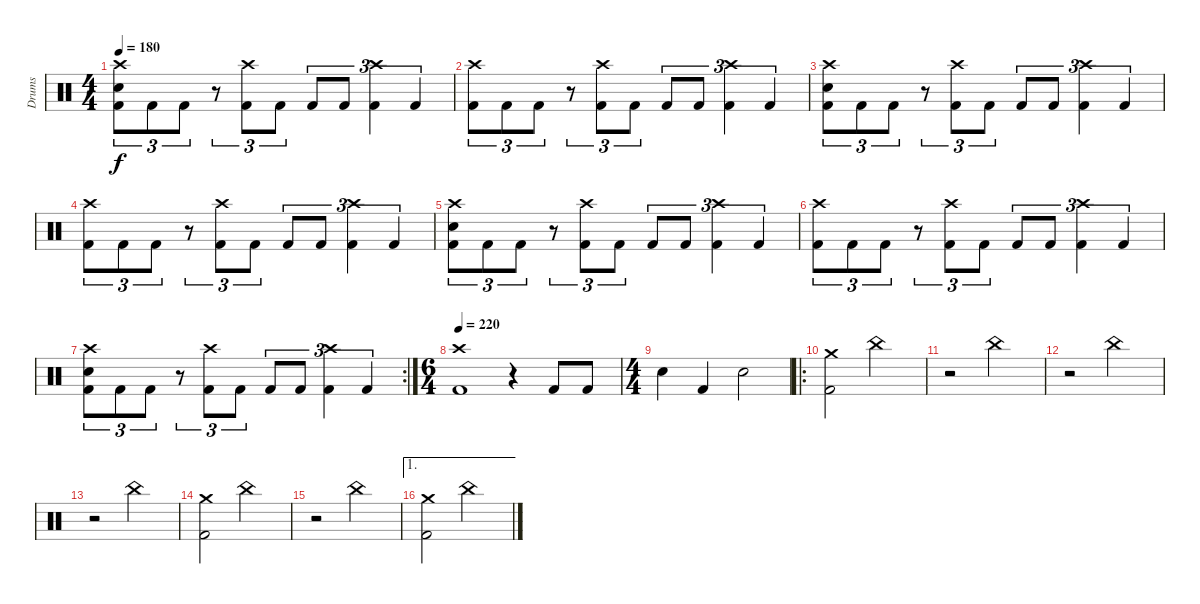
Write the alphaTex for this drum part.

\track ("Drums" "Drums") {instrument percussion}
\staff {score}
\articulation defaults
\ts (4 4)
\tempo 180
\clef neutral
\ks c
("Crash high (hit)" "Electric Snare (hit)" "Kick (hit) 2").8{tu (3 2) dy f} "Kick (hit) 2".8{tu (3 2)} "Kick (hit) 2".8{tu (3 2)} r.8{tu (3 2)} ("Crash high (hit)" "Kick (hit) 2").8{tu (3 2)} "Kick (hit) 2".8{tu (3 2)} "Kick (hit) 2".8{tu (3 2)} "Kick (hit) 2".8{tu (3 2)} ("Crash high (hit)" "Kick (hit) 2").4{tu (3 2)} "Kick (hit) 2".4{tu (3 2)} |
("Crash high (hit)" "Kick (hit) 2").8{tu (3 2)} "Kick (hit) 2".8{tu (3 2)} "Kick (hit) 2".8{tu (3 2)} r.8{tu (3 2)} ("Crash high (hit)" "Kick (hit) 2").8{tu (3 2)} "Kick (hit) 2".8{tu (3 2)} "Kick (hit) 2".8{tu (3 2)} "Kick (hit) 2".8{tu (3 2)} ("Crash high (hit)" "Kick (hit) 2").4{tu (3 2)} "Kick (hit) 2".4{tu (3 2)} |
("Crash high (hit)" "Electric Snare (hit)" "Kick (hit) 2").8{tu (3 2)} "Kick (hit) 2".8{tu (3 2)} "Kick (hit) 2".8{tu (3 2)} r.8{tu (3 2)} ("Crash high (hit)" "Kick (hit) 2").8{tu (3 2)} "Kick (hit) 2".8{tu (3 2)} "Kick (hit) 2".8{tu (3 2)} "Kick (hit) 2".8{tu (3 2)} ("Crash high (hit)" "Kick (hit) 2").4{tu (3 2)} "Kick (hit) 2".4{tu (3 2)} |
("Crash high (hit)" "Kick (hit) 2").8{tu (3 2)} "Kick (hit) 2".8{tu (3 2)} "Kick (hit) 2".8{tu (3 2)} r.8{tu (3 2)} ("Crash high (hit)" "Kick (hit) 2").8{tu (3 2)} "Kick (hit) 2".8{tu (3 2)} "Kick (hit) 2".8{tu (3 2)} "Kick (hit) 2".8{tu (3 2)} ("Crash high (hit)" "Kick (hit) 2").4{tu (3 2)} "Kick (hit) 2".4{tu (3 2)} |
("Crash high (hit)" "Electric Snare (hit)" "Kick (hit) 2").8{tu (3 2)} "Kick (hit) 2".8{tu (3 2)} "Kick (hit) 2".8{tu (3 2)} r.8{tu (3 2)} ("Crash high (hit)" "Kick (hit) 2").8{tu (3 2)} "Kick (hit) 2".8{tu (3 2)} "Kick (hit) 2".8{tu (3 2)} "Kick (hit) 2".8{tu (3 2)} ("Crash high (hit)" "Kick (hit) 2").4{tu (3 2)} "Kick (hit) 2".4{tu (3 2)} |
("Crash high (hit)" "Kick (hit) 2").8{tu (3 2)} "Kick (hit) 2".8{tu (3 2)} "Kick (hit) 2".8{tu (3 2)} r.8{tu (3 2)} ("Crash high (hit)" "Kick (hit) 2").8{tu (3 2)} "Kick (hit) 2".8{tu (3 2)} "Kick (hit) 2".8{tu (3 2)} "Kick (hit) 2".8{tu (3 2)} ("Crash high (hit)" "Kick (hit) 2").4{tu (3 2)} "Kick (hit) 2".4{tu (3 2)} |
\rc 2
("Crash high (hit)" "Electric Snare (hit)" "Kick (hit) 2").8{tu (3 2)} "Kick (hit) 2".8{tu (3 2)} "Kick (hit) 2".8{tu (3 2)} r.8{tu (3 2)} ("Crash high (hit)" "Kick (hit) 2").8{tu (3 2)} "Kick (hit) 2".8{tu (3 2)} "Kick (hit) 2".8{tu (3 2)} "Kick (hit) 2".8{tu (3 2)} ("Crash high (hit)" "Kick (hit) 2").4{tu (3 2)} "Kick (hit) 2".4{tu (3 2)} |
\ts (6 4)
\tempo 220
("Crash high (hit)" "Kick (hit) 2").1 r.4 "Kick (hit) 2".8 "Kick (hit) 2".8 |
\ts (4 4)
"Electric Snare (hit)".4 "Kick (hit) 2".4 "Electric Snare (hit)".2 |
\ro
("Crash medium (hit)" "Kick (hit) 2").2 "China (hit)".2 |
r.2 "China (hit)".2 |
r.2 "China (hit)".2 |
r.2 "China (hit)".2 |
("Crash medium (hit)" "Kick (hit) 2").2 "China (hit)".2 |
r.2 "China (hit)".2 |
\ae 1
("Crash medium (hit)" "Kick (hit) 2").2 "China (hit)".2
